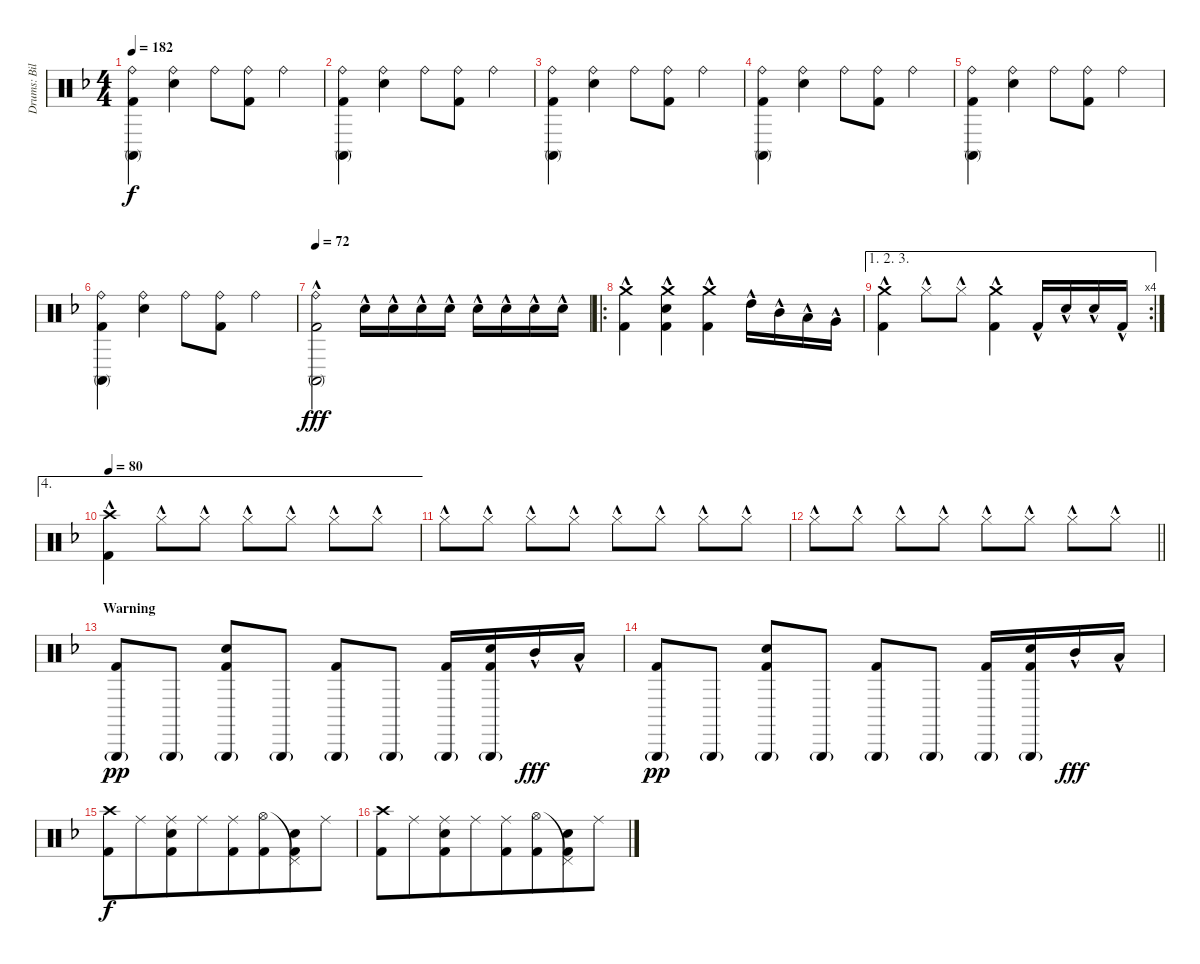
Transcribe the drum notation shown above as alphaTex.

\track ("Drums: Bill" "Drums: Bil") {instrument percussion}
\staff {score}
\articulation defaults
\ts (4 4)
\tempo 182
\clef neutral
\ks f
("Ride (bell)" "Conga high (mute)" "Kick (hit) 2").4{dy f} ("Ride (bell)" "Snare (hit) 2").4 "Ride (bell)".8 ("Ride (bell)" "Kick (hit) 2").8 "Ride (bell)".4 |
("Ride (bell)" "Conga high (mute)" "Kick (hit) 2").4 ("Ride (bell)" "Snare (hit) 2").4 "Ride (bell)".8 ("Ride (bell)" "Kick (hit) 2").8 "Ride (bell)".4 |
("Ride (bell)" "Conga high (mute)" "Kick (hit) 2").4 ("Ride (bell)" "Snare (hit) 2").4 "Ride (bell)".8 ("Ride (bell)" "Kick (hit) 2").8 "Ride (bell)".4 |
("Ride (bell)" "Conga high (mute)" "Kick (hit) 2").4 ("Ride (bell)" "Snare (hit) 2").4 "Ride (bell)".8 ("Ride (bell)" "Kick (hit) 2").8 "Ride (bell)".4 |
("Ride (bell)" "Conga high (mute)" "Kick (hit) 2").4 ("Ride (bell)" "Snare (hit) 2").4 "Ride (bell)".8 ("Ride (bell)" "Kick (hit) 2").8 "Ride (bell)".4 |
("Ride (bell)" "Conga high (mute)" "Kick (hit) 2").4 ("Ride (bell)" "Snare (hit) 2").4 "Ride (bell)".8 ("Ride (bell)" "Kick (hit) 2").8 "Ride (bell)".4 |
\tempo 72
("Ride (bell)"{hac} "Conga high (mute)"{hac} "Kick (hit) 2"{hac}).2{dy fff} "Snare (hit) 2"{hac}.16 "Snare (hit) 2"{hac}.16 "Snare (hit) 2"{hac}.16 "Snare (hit) 2"{hac}.16 "Snare (hit) 2"{hac}.16 "Snare (hit) 2"{hac}.16 "Snare (hit) 2"{hac}.16 "Snare (hit) 2"{hac}.16 |
\ro
("Crash medium (hit)"{hac} "Kick (hit) 2"{hac}).4 ("Crash medium (hit)"{hac} "Snare (hit) 2"{hac} "Kick (hit) 2"{hac}).4 ("Crash medium (hit)"{hac} "Kick (hit) 2"{hac}).4 "High Tom (hit)"{hac}.16 "Mid Tom (hit)"{hac}.16 "Low Tom (hit)"{hac}.16 "Very Low Tom (hit)"{hac}.16 |
\ae (1 2 3)
\rc 4
("Crash medium (hit)"{hac} "Kick (hit) 2"{hac}).4 "Hi-Hat (closed)"{hac}.8 "Hi-Hat (closed)"{hac}.8 ("Crash medium (hit)"{hac} "Kick (hit) 2"{hac}).4 "Kick (hit) 2"{hac}.16 "Snare (hit) 2"{hac}.16 "Snare (hit) 2"{hac}.16 "Kick (hit) 2"{hac}.16 |
\ae 4
\tempo 80
("Crash high (hit)"{hac} "Kick (hit) 2"{hac}).4 "Hi-Hat (closed)"{hac}.8 "Hi-Hat (closed)"{hac}.8 "Hi-Hat (closed)"{hac}.8 "Hi-Hat (closed)"{hac}.8 "Hi-Hat (closed)"{hac}.8 "Hi-Hat (closed)"{hac}.8 |
"Hi-Hat (closed)"{hac}.8 "Hi-Hat (closed)"{hac}.8 "Hi-Hat (closed)"{hac}.8 "Hi-Hat (closed)"{hac}.8 "Hi-Hat (closed)"{hac}.8 "Hi-Hat (closed)"{hac}.8 "Hi-Hat (closed)"{hac}.8 "Hi-Hat (closed)"{hac}.8 |
\barLineRight lightlight "Hi-Hat (closed)"{hac}.8 "Hi-Hat (closed)"{hac}.8 "Hi-Hat (closed)"{hac}.8 "Hi-Hat (closed)"{hac}.8 "Hi-Hat (closed)"{hac}.8 "Hi-Hat (closed)"{hac}.8 "Hi-Hat (closed)"{hac}.8 "Hi-Hat (closed)"{hac}.8
|
\section ("" "Warning")
("Triangle (hit)"{g} "Kick (hit) 2").8{dy pp} "Triangle (hit)"{g}.8 ("Triangle (hit)"{g} "Snare (hit) 2" "Kick (hit) 2").8 "Triangle (hit)"{g}.8 ("Triangle (hit)"{g} "Kick (hit) 2").8 "Triangle (hit)"{g}.8 ("Triangle (hit)"{g} "Kick (hit) 2").16 ("Triangle (hit)"{g} "Snare (hit) 2" "Kick (hit) 2").16 "Mid Tom (hit)"{hac}.16{dy fff} "Low Tom (hit)"{hac}.16 |
("Triangle (hit)"{g} "Kick (hit) 2").8{dy pp} "Triangle (hit)"{g}.8 ("Triangle (hit)"{g} "Snare (hit) 2" "Kick (hit) 2").8 "Triangle (hit)"{g}.8 ("Triangle (hit)"{g} "Kick (hit) 2").8 "Triangle (hit)"{g}.8 ("Triangle (hit)"{g} "Kick (hit) 2").16 ("Triangle (hit)"{g} "Snare (hit) 2" "Kick (hit) 2").16 "Mid Tom (hit)"{hac}.16{dy fff} "Low Tom (hit)"{hac}.16 |
("Crash high (hit)" "Kick (hit) 2").8{dy f} "Ride (middle)".8{beam merge} ("Ride (middle)" "Snare (hit) 2" "Kick (hit) 2").8 "Ride (middle)".8{beam merge} ("Ride (middle)" "Kick (hit) 2").8 ("Hi-Hat (open)" "Kick (hit) 2").8{beam merge} ("Pedal Hi-Hat (hit)"{t} "Snare (hit) 2" "Kick (hit) 2").8 "Ride (middle)".8 |
("Crash high (hit)" "Kick (hit) 2").8 "Ride (middle)".8{beam merge} ("Ride (middle)" "Snare (hit) 2" "Kick (hit) 2").8 "Ride (middle)".8{beam merge} ("Ride (middle)" "Kick (hit) 2").8 ("Hi-Hat (open)" "Kick (hit) 2").8{beam merge} ("Pedal Hi-Hat (hit)"{t} "Snare (hit) 2" "Kick (hit) 2").8 "Ride (middle)".8
